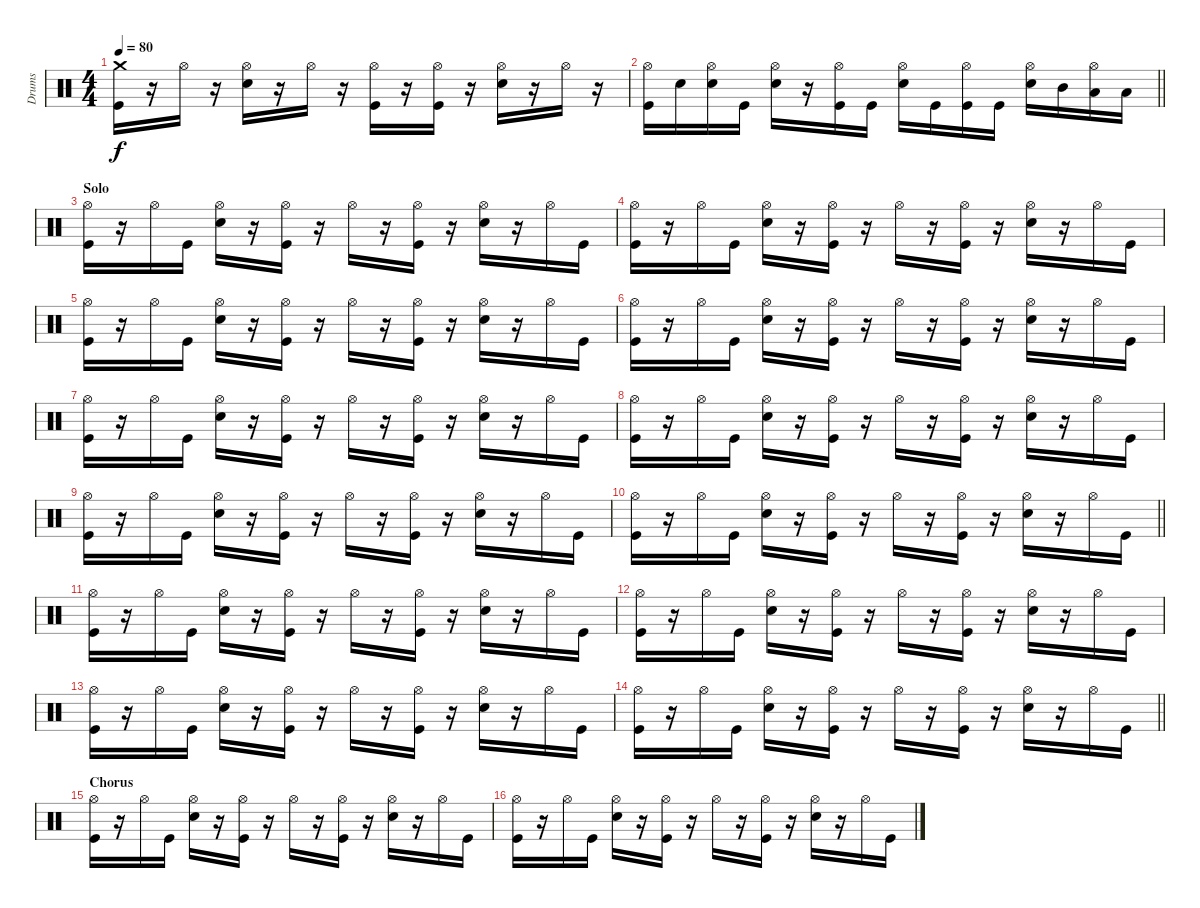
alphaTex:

\track ("Drums" "Drums") {instrument percussion}
\staff {score}
\articulation defaults
\ts (4 4)
\tempo 80
\clef neutral
\ks c
("Crash medium (hit)" "Kick (hit)").16{dy f} r.16 "Hi-Hat (open)".16 r.16 ("Hi-Hat (open)" "Electric Snare (hit)").16 r.16 "Hi-Hat (open)".16 r.16 ("Hi-Hat (open)" "Kick (hit)").16 r.16 ("Hi-Hat (open)" "Kick (hit)").16 r.16 ("Hi-Hat (open)" "Electric Snare (hit)").16 r.16 "Hi-Hat (open)".16 r.16 |
\barLineRight lightlight
("Hi-Hat (open)" "Kick (hit)").16 "Electric Snare (hit)".16 ("Hi-Hat (open)" "Electric Snare (hit)").16 "Kick (hit)".16 ("Hi-Hat (open)" "Electric Snare (hit)").16 r.16 ("Hi-Hat (open)" "Kick (hit)").16 "Kick (hit)".16 ("Hi-Hat (open)" "Electric Snare (hit)").16 "Kick (hit)".16 ("Hi-Hat (open)" "Kick (hit)").16 "Kick (hit)".16 ("Hi-Hat (open)" "Electric Snare (hit)").16 "Mid Tom (hit)".16 ("Hi-Hat (open)" "Low Tom (hit)").16 "Low Floor Tom (hit)".16 |
\section ("" "Solo")
("Hi-Hat (open)" "Kick (hit)").16 r.16 "Hi-Hat (open)".16 "Kick (hit)".16 ("Hi-Hat (open)" "Electric Snare (hit)").16 r.16 ("Hi-Hat (open)" "Kick (hit)").16 r.16 "Hi-Hat (open)".16 r.16 ("Hi-Hat (open)" "Kick (hit)").16 r.16 ("Hi-Hat (open)" "Electric Snare (hit)").16 r.16 "Hi-Hat (open)".16 "Kick (hit)".16 |
("Hi-Hat (open)" "Kick (hit)").16 r.16 "Hi-Hat (open)".16 "Kick (hit)".16 ("Hi-Hat (open)" "Electric Snare (hit)").16 r.16 ("Hi-Hat (open)" "Kick (hit)").16 r.16 "Hi-Hat (open)".16 r.16 ("Hi-Hat (open)" "Kick (hit)").16 r.16 ("Hi-Hat (open)" "Electric Snare (hit)").16 r.16 "Hi-Hat (open)".16 "Kick (hit)".16 |
("Hi-Hat (open)" "Kick (hit)").16 r.16 "Hi-Hat (open)".16 "Kick (hit)".16 ("Hi-Hat (open)" "Electric Snare (hit)").16 r.16 ("Hi-Hat (open)" "Kick (hit)").16 r.16 "Hi-Hat (open)".16 r.16 ("Hi-Hat (open)" "Kick (hit)").16 r.16 ("Hi-Hat (open)" "Electric Snare (hit)").16 r.16 "Hi-Hat (open)".16 "Kick (hit)".16 |
("Hi-Hat (open)" "Kick (hit)").16 r.16 "Hi-Hat (open)".16 "Kick (hit)".16 ("Hi-Hat (open)" "Electric Snare (hit)").16 r.16 ("Hi-Hat (open)" "Kick (hit)").16 r.16 "Hi-Hat (open)".16 r.16 ("Hi-Hat (open)" "Kick (hit)").16 r.16 ("Hi-Hat (open)" "Electric Snare (hit)").16 r.16 "Hi-Hat (open)".16 "Kick (hit)".16 |
("Hi-Hat (open)" "Kick (hit)").16 r.16 "Hi-Hat (open)".16 "Kick (hit)".16 ("Hi-Hat (open)" "Electric Snare (hit)").16 r.16 ("Hi-Hat (open)" "Kick (hit)").16 r.16 "Hi-Hat (open)".16 r.16 ("Hi-Hat (open)" "Kick (hit)").16 r.16 ("Hi-Hat (open)" "Electric Snare (hit)").16 r.16 "Hi-Hat (open)".16 "Kick (hit)".16 |
("Hi-Hat (open)" "Kick (hit)").16 r.16 "Hi-Hat (open)".16 "Kick (hit)".16 ("Hi-Hat (open)" "Electric Snare (hit)").16 r.16 ("Hi-Hat (open)" "Kick (hit)").16 r.16 "Hi-Hat (open)".16 r.16 ("Hi-Hat (open)" "Kick (hit)").16 r.16 ("Hi-Hat (open)" "Electric Snare (hit)").16 r.16 "Hi-Hat (open)".16 "Kick (hit)".16 |
("Hi-Hat (open)" "Kick (hit)").16 r.16 "Hi-Hat (open)".16 "Kick (hit)".16 ("Hi-Hat (open)" "Electric Snare (hit)").16 r.16 ("Hi-Hat (open)" "Kick (hit)").16 r.16 "Hi-Hat (open)".16 r.16 ("Hi-Hat (open)" "Kick (hit)").16 r.16 ("Hi-Hat (open)" "Electric Snare (hit)").16 r.16 "Hi-Hat (open)".16 "Kick (hit)".16 |
\barLineRight lightlight
("Hi-Hat (open)" "Kick (hit)").16 r.16 "Hi-Hat (open)".16 "Kick (hit)".16 ("Hi-Hat (open)" "Electric Snare (hit)").16 r.16 ("Hi-Hat (open)" "Kick (hit)").16 r.16 "Hi-Hat (open)".16 r.16 ("Hi-Hat (open)" "Kick (hit)").16 r.16 ("Hi-Hat (open)" "Electric Snare (hit)").16 r.16 "Hi-Hat (open)".16 "Kick (hit)".16 |
("Hi-Hat (open)" "Kick (hit)").16 r.16 "Hi-Hat (open)".16 "Kick (hit)".16 ("Hi-Hat (open)" "Electric Snare (hit)").16 r.16 ("Hi-Hat (open)" "Kick (hit)").16 r.16 "Hi-Hat (open)".16 r.16 ("Hi-Hat (open)" "Kick (hit)").16 r.16 ("Hi-Hat (open)" "Electric Snare (hit)").16 r.16 "Hi-Hat (open)".16 "Kick (hit)".16 |
("Hi-Hat (open)" "Kick (hit)").16 r.16 "Hi-Hat (open)".16 "Kick (hit)".16 ("Hi-Hat (open)" "Electric Snare (hit)").16 r.16 ("Hi-Hat (open)" "Kick (hit)").16 r.16 "Hi-Hat (open)".16 r.16 ("Hi-Hat (open)" "Kick (hit)").16 r.16 ("Hi-Hat (open)" "Electric Snare (hit)").16 r.16 "Hi-Hat (open)".16 "Kick (hit)".16 |
("Hi-Hat (open)" "Kick (hit)").16 r.16 "Hi-Hat (open)".16 "Kick (hit)".16 ("Hi-Hat (open)" "Electric Snare (hit)").16 r.16 ("Hi-Hat (open)" "Kick (hit)").16 r.16 "Hi-Hat (open)".16 r.16 ("Hi-Hat (open)" "Kick (hit)").16 r.16 ("Hi-Hat (open)" "Electric Snare (hit)").16 r.16 "Hi-Hat (open)".16 "Kick (hit)".16 |
\barLineRight lightlight
("Hi-Hat (open)" "Kick (hit)").16 r.16 "Hi-Hat (open)".16 "Kick (hit)".16 ("Hi-Hat (open)" "Electric Snare (hit)").16 r.16 ("Hi-Hat (open)" "Kick (hit)").16 r.16 "Hi-Hat (open)".16 r.16 ("Hi-Hat (open)" "Kick (hit)").16 r.16 ("Hi-Hat (open)" "Electric Snare (hit)").16 r.16 "Hi-Hat (open)".16 "Kick (hit)".16 |
\section ("" "Chorus")
("Hi-Hat (open)" "Kick (hit)").16 r.16 "Hi-Hat (open)".16 "Kick (hit)".16 ("Hi-Hat (open)" "Electric Snare (hit)").16 r.16 ("Hi-Hat (open)" "Kick (hit)").16 r.16 "Hi-Hat (open)".16 r.16 ("Hi-Hat (open)" "Kick (hit)").16 r.16 ("Hi-Hat (open)" "Electric Snare (hit)").16 r.16 "Hi-Hat (open)".16 "Kick (hit)".16 |
("Hi-Hat (open)" "Kick (hit)").16 r.16 "Hi-Hat (open)".16 "Kick (hit)".16 ("Hi-Hat (open)" "Electric Snare (hit)").16 r.16 ("Hi-Hat (open)" "Kick (hit)").16 r.16 "Hi-Hat (open)".16 r.16 ("Hi-Hat (open)" "Kick (hit)").16 r.16 ("Hi-Hat (open)" "Electric Snare (hit)").16 r.16 "Hi-Hat (open)".16 "Kick (hit)".16
